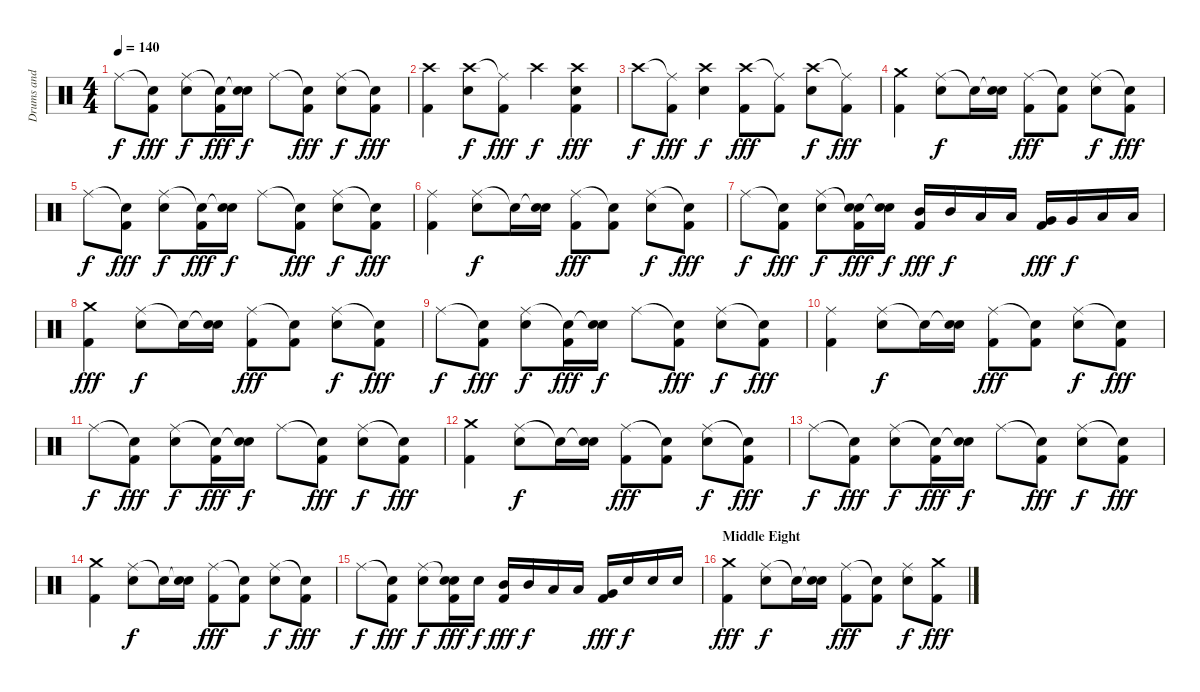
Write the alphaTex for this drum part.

\track ("Drums and Percussion" "Drums and ") {instrument percussion}
\staff {score}
\articulation defaults
\ts (4 4)
\tempo 140
\clef neutral
\ks c "Ride (middle)".8{dy f}
("Snare (hit)"{t} "Kick (hit) 2").8{dy fff} ("Ride (middle)" "Snare (hit) 2").8{dy f} ("Snare (hit)"{t} "Kick (hit) 2").16{dy fff} ("Snare (hit)"{t} "Snare (hit) 2").16{dy f} "Ride (middle)".8 ("Snare (hit)"{t} "Kick (hit) 2").8{dy fff} ("Ride (middle)" "Snare (hit) 2").8{dy f} ("Snare (hit)"{t} "Kick (hit) 2").8{dy fff} |
("Crash high (hit)" "Kick (hit) 2").4 ("Crash high (hit)" "Snare (hit) 2").8{dy f} ("Ride (middle)"{t} "Kick (hit) 2").8{dy fff} "Crash high (hit)".4{dy f} ("Crash high (hit)" "Snare (hit) 2" "Kick (hit) 2").4{dy fff} |
"Crash high (hit)".8{dy f} ("Ride (middle)"{t} "Kick (hit) 2").8{dy fff} ("Crash high (hit)" "Snare (hit) 2").4{dy f} ("Crash high (hit)" "Kick (hit) 2").8{dy fff} ("Ride (middle)"{t} "Kick (hit) 2").8 ("Crash high (hit)" "Snare (hit) 2").8{dy f} ("Ride (middle)"{t} "Kick (hit) 2").8{dy fff} |
("Crash medium (hit)" "Kick (hit) 2").4 ("Ride (middle)" "Snare (hit) 2").8{dy f} "Snare (hit)"{t}.16 ("Snare (hit)"{t} "Snare (hit) 2").16 ("Ride (middle)" "Kick (hit) 2").8{dy fff} ("Snare (hit)"{t} "Kick (hit) 2").8 ("Ride (middle)" "Snare (hit) 2").8{dy f} ("Snare (hit)"{t} "Kick (hit) 2").8{dy fff} |
"Ride (middle)".8{dy f} ("Snare (hit)"{t} "Kick (hit) 2").8{dy fff} ("Ride (middle)" "Snare (hit) 2").8{dy f} ("Snare (hit)"{t} "Kick (hit) 2").16{dy fff} ("Snare (hit)"{t} "Snare (hit) 2").16{dy f} "Ride (middle)".8 ("Snare (hit)"{t} "Kick (hit) 2").8{dy fff} ("Ride (middle)" "Snare (hit) 2").8{dy f} ("Snare (hit)"{t} "Kick (hit) 2").8{dy fff} |
("Ride (middle)" "Kick (hit) 2").4 ("Ride (middle)" "Snare (hit) 2").8{dy f} "Snare (hit)"{t}.16 ("Snare (hit)"{t} "Snare (hit) 2").16 ("Ride (middle)" "Kick (hit) 2").8{dy fff} ("Snare (hit)"{t} "Kick (hit) 2").8 ("Ride (middle)" "Snare (hit) 2").8{dy f} ("Snare (hit)"{t} "Kick (hit) 2").8{dy fff} |
"Ride (middle)".8{dy f} ("Snare (hit)"{t} "Kick (hit) 2").8{dy fff} ("Ride (middle)" "Snare (hit) 2").8{dy f} ("Snare (hit)"{t} "Snare (hit) 2" "Kick (hit) 2").16{dy fff} ("Snare (hit)"{t} "Snare (hit) 2").16{dy f} ("Mid Tom (hit)" "Kick (hit) 2").16{dy fff} "Mid Tom (hit)".16{dy f} "Low Tom (hit)".16 "Low Tom (hit)".16 ("Very Low Tom (hit)" "Kick (hit) 2").16{dy fff} "Very Low Tom (hit)".16{dy f} "Low Floor Tom (hit)".16 "Low Floor Tom (hit)".16 |
("Crash medium (hit)" "Kick (hit) 2").4{dy fff} ("Ride (middle)" "Snare (hit) 2").8{dy f} "Snare (hit)"{t}.16 ("Snare (hit)"{t} "Snare (hit) 2").16 ("Ride (middle)" "Kick (hit) 2").8{dy fff} ("Snare (hit)"{t} "Kick (hit) 2").8 ("Ride (middle)" "Snare (hit) 2").8{dy f} ("Snare (hit)"{t} "Kick (hit) 2").8{dy fff} |
"Ride (middle)".8{dy f} ("Snare (hit)"{t} "Kick (hit) 2").8{dy fff} ("Ride (middle)" "Snare (hit) 2").8{dy f} ("Snare (hit)"{t} "Kick (hit) 2").16{dy fff} ("Snare (hit)"{t} "Snare (hit) 2").16{dy f} "Ride (middle)".8 ("Snare (hit)"{t} "Kick (hit) 2").8{dy fff} ("Ride (middle)" "Snare (hit) 2").8{dy f} ("Snare (hit)"{t} "Kick (hit) 2").8{dy fff} |
("Ride (middle)" "Kick (hit) 2").4 ("Ride (middle)" "Snare (hit) 2").8{dy f} "Snare (hit)"{t}.16 ("Snare (hit)"{t} "Snare (hit) 2").16 ("Ride (middle)" "Kick (hit) 2").8{dy fff} ("Snare (hit)"{t} "Kick (hit) 2").8 ("Ride (middle)" "Snare (hit) 2").8{dy f} ("Snare (hit)"{t} "Kick (hit) 2").8{dy fff} |
"Ride (middle)".8{dy f} ("Snare (hit)"{t} "Kick (hit) 2").8{dy fff} ("Ride (middle)" "Snare (hit) 2").8{dy f} ("Snare (hit)"{t} "Kick (hit) 2").16{dy fff} ("Snare (hit)"{t} "Snare (hit) 2").16{dy f} "Ride (middle)".8 ("Snare (hit)"{t} "Kick (hit) 2").8{dy fff} ("Ride (middle)" "Snare (hit) 2").8{dy f} ("Snare (hit)"{t} "Kick (hit) 2").8{dy fff} |
("Crash medium (hit)" "Kick (hit) 2").4 ("Ride (middle)" "Snare (hit) 2").8{dy f} "Snare (hit)"{t}.16 ("Snare (hit)"{t} "Snare (hit) 2").16 ("Ride (middle)" "Kick (hit) 2").8{dy fff} ("Snare (hit)"{t} "Kick (hit) 2").8 ("Ride (middle)" "Snare (hit) 2").8{dy f} ("Snare (hit)"{t} "Kick (hit) 2").8{dy fff} |
"Ride (middle)".8{dy f} ("Snare (hit)"{t} "Kick (hit) 2").8{dy fff} ("Ride (middle)" "Snare (hit) 2").8{dy f} ("Snare (hit)"{t} "Kick (hit) 2").16{dy fff} ("Snare (hit)"{t} "Snare (hit) 2").16{dy f} "Ride (middle)".8 ("Snare (hit)"{t} "Kick (hit) 2").8{dy fff} ("Ride (middle)" "Snare (hit) 2").8{dy f} ("Snare (hit)"{t} "Kick (hit) 2").8{dy fff} |
("Crash medium (hit)" "Kick (hit) 2").4 ("Ride (middle)" "Snare (hit) 2").8{dy f} "Snare (hit)"{t}.16 ("Snare (hit)"{t} "Snare (hit) 2").16 ("Ride (middle)" "Kick (hit) 2").8{dy fff} ("Snare (hit)"{t} "Kick (hit) 2").8 ("Ride (middle)" "Snare (hit) 2").8{dy f} ("Snare (hit)"{t} "Kick (hit) 2").8{dy fff} |
"Ride (middle)".8{dy f} ("Snare (hit)"{t} "Kick (hit) 2").8{dy fff} ("Ride (middle)" "Snare (hit) 2").8{dy f} ("Snare (hit)"{t} "Snare (hit) 2" "Kick (hit) 2").16{dy fff} "Snare (hit) 2".16{dy f} ("Mid Tom (hit)" "Kick (hit) 2").16{dy fff} "Mid Tom (hit)".16{dy f} "Low Tom (hit)".16 "Low Tom (hit)".16 ("Very Low Tom (hit)" "Kick (hit) 2").16{dy fff} "Snare (hit) 2".16{dy f} "Snare (hit) 2".16 "Snare (hit) 2".16 |
\section ("" "Middle Eight")
("Crash medium (hit)" "Kick (hit) 2").4{dy fff} ("Ride (middle)" "Snare (hit) 2").8{dy f} "Snare (hit)"{t}.16 ("Snare (hit)"{t} "Snare (hit) 2").16 ("Ride (middle)" "Kick (hit) 2").8{dy fff} ("Snare (hit)"{t} "Kick (hit) 2").8 ("Ride (middle)" "Snare (hit) 2").8{dy f} ("Crash medium (hit)" "Kick (hit) 2").8{dy fff}
